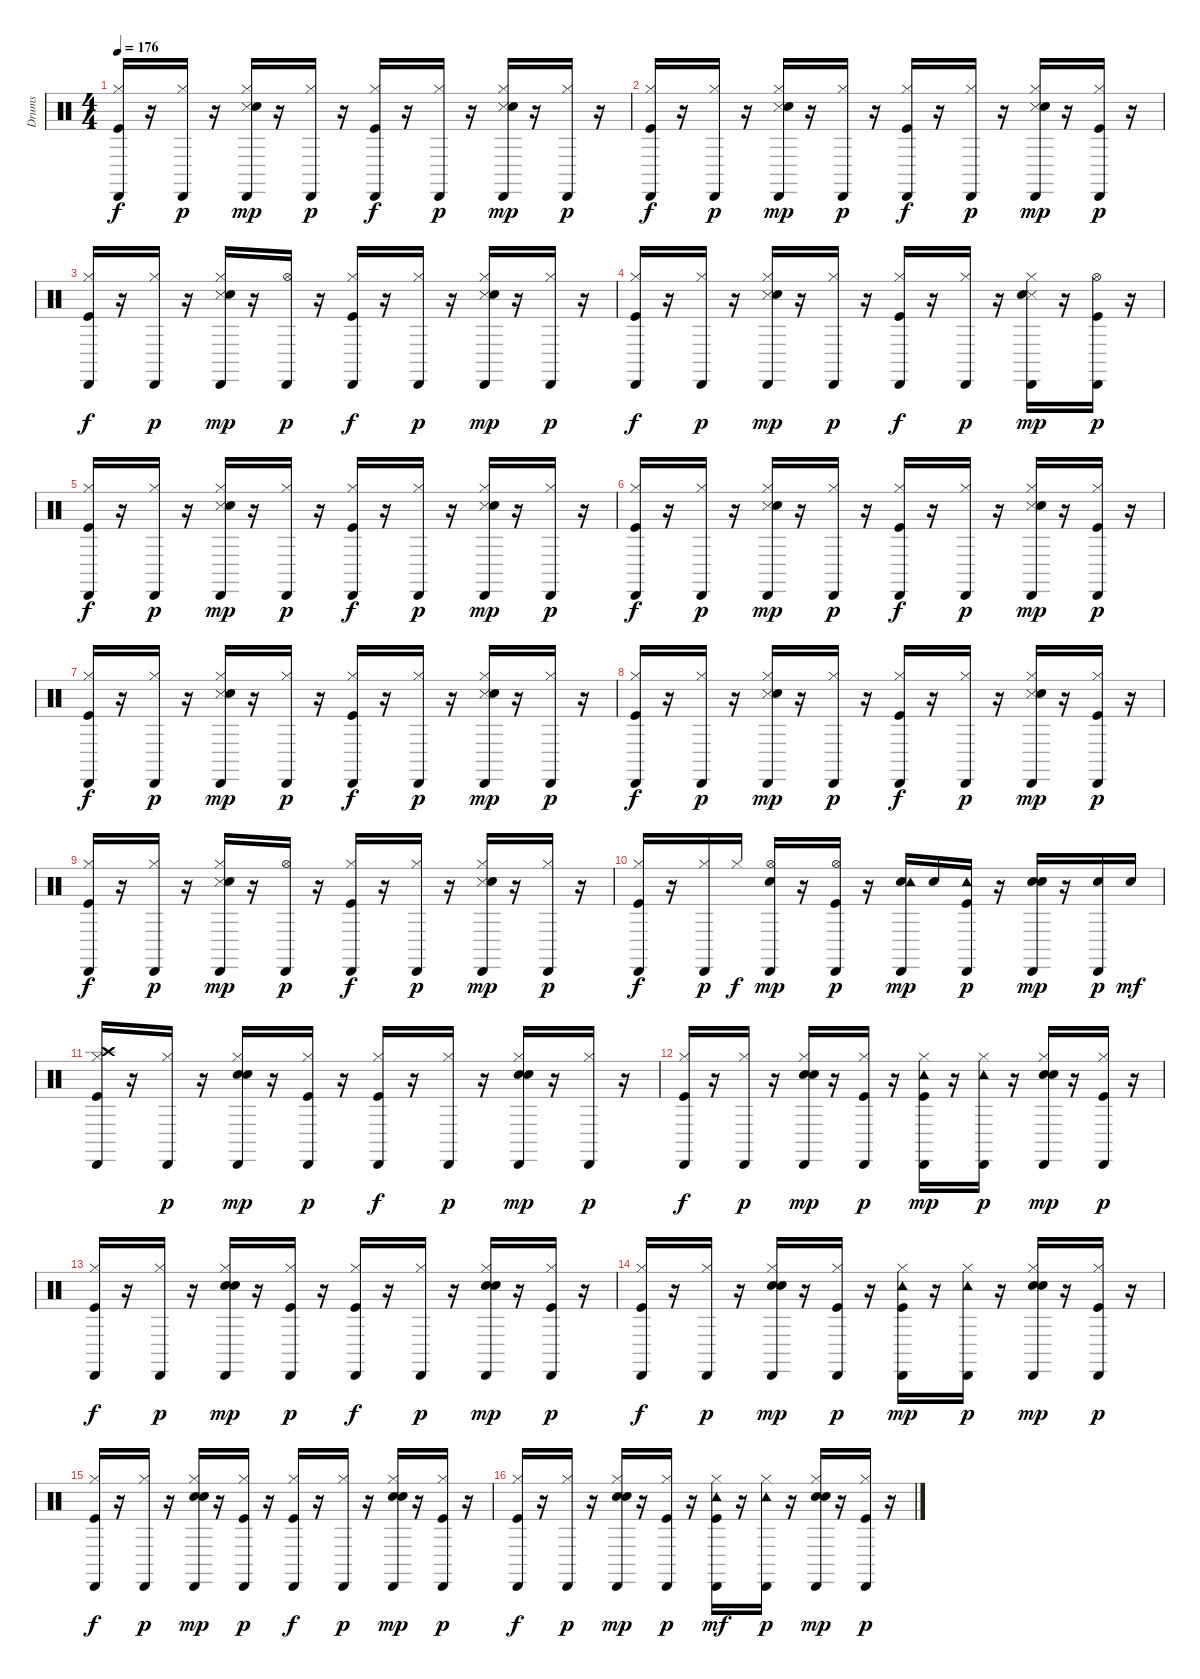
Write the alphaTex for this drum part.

\track ("Drums" "Drums") {instrument percussion}
\staff {score}
\articulation defaults
\ts (4 4)
\tempo 176
\clef neutral
\ks c
("Kick (hit)" "Hi-Hat (closed)" "Cabasa (hit)").16{dy f} r.16 ("Hi-Hat (closed)" "Cabasa (hit)").16{dy p} r.16 ("Hi-Hat (closed)" "Snare (side stick) 3" "Hand Clap (hit)" "Cabasa (hit)").16{dy mp} r.16 ("Hi-Hat (closed)" "Cabasa (hit)").16{dy p} r.16 ("Kick (hit)" "Hi-Hat (closed)" "Cabasa (hit)").16{dy f} r.16 ("Hi-Hat (closed)" "Cabasa (hit)").16{dy p} r.16 ("Hi-Hat (closed)" "Snare (side stick) 3" "Hand Clap (hit)" "Cabasa (hit)").16{dy mp} r.16 ("Hi-Hat (closed)" "Cabasa (hit)").16{dy p} r.16 |
("Kick (hit)" "Hi-Hat (closed)" "Cabasa (hit)").16{dy f} r.16 ("Hi-Hat (closed)" "Cabasa (hit)").16{dy p} r.16 ("Hi-Hat (closed)" "Snare (side stick) 3" "Hand Clap (hit)" "Cabasa (hit)").16{dy mp} r.16 ("Hi-Hat (closed)" "Cabasa (hit)").16{dy p} r.16 ("Kick (hit)" "Hi-Hat (closed)" "Cabasa (hit)").16{dy f} r.16 ("Hi-Hat (closed)" "Cabasa (hit)").16{dy p} r.16 ("Hi-Hat (closed)" "Snare (side stick) 3" "Hand Clap (hit)" "Cabasa (hit)").16{dy mp} r.16 ("Kick (hit)" "Hi-Hat (closed)" "Cabasa (hit)").16{dy p} r.16 |
("Kick (hit)" "Hi-Hat (closed)" "Cabasa (hit)").16{dy f} r.16 ("Hi-Hat (closed)" "Cabasa (hit)").16{dy p} r.16 ("Hi-Hat (closed)" "Snare (side stick) 3" "Hand Clap (hit)" "Cabasa (hit)").16{dy mp} r.16 ("Hi-Hat (open)" "Cabasa (hit)").16{dy p} r.16 ("Kick (hit)" "Hi-Hat (closed)" "Cabasa (hit)").16{dy f} r.16 ("Hi-Hat (closed)" "Cabasa (hit)").16{dy p} r.16 ("Hi-Hat (closed)" "Snare (side stick) 3" "Hand Clap (hit)" "Cabasa (hit)").16{dy mp} r.16 ("Hi-Hat (closed)" "Cabasa (hit)").16{dy p} r.16 |
("Kick (hit)" "Hi-Hat (closed)" "Cabasa (hit)").16{dy f} r.16 ("Hi-Hat (closed)" "Cabasa (hit)").16{dy p} r.16 ("Hi-Hat (closed)" "Snare (side stick) 3" "Hand Clap (hit)" "Cabasa (hit)").16{dy mp} r.16 ("Hi-Hat (closed)" "Cabasa (hit)").16{dy p} r.16 ("Kick (hit)" "Hi-Hat (closed)" "Cabasa (hit)").16{dy f} r.16 ("Hi-Hat (closed)" "Cabasa (hit)").16{dy p} r.16 ("Hi-Hat (closed)" "Snare (side stick) 3" "Hand Clap (hit)" "Cabasa (hit)").16{dy mp} r.16 ("Kick (hit)" "Hi-Hat (open)" "Cabasa (hit)").16{dy p} r.16 |
("Kick (hit)" "Hi-Hat (closed)" "Cabasa (hit)").16{dy f} r.16 ("Hi-Hat (closed)" "Cabasa (hit)").16{dy p} r.16 ("Hi-Hat (closed)" "Snare (side stick) 3" "Hand Clap (hit)" "Cabasa (hit)").16{dy mp} r.16 ("Hi-Hat (closed)" "Cabasa (hit)").16{dy p} r.16 ("Kick (hit)" "Hi-Hat (closed)" "Cabasa (hit)").16{dy f} r.16 ("Hi-Hat (closed)" "Cabasa (hit)").16{dy p} r.16 ("Hi-Hat (closed)" "Snare (side stick) 3" "Hand Clap (hit)" "Cabasa (hit)").16{dy mp} r.16 ("Hi-Hat (closed)" "Cabasa (hit)").16{dy p} r.16 |
("Kick (hit)" "Hi-Hat (closed)" "Cabasa (hit)").16{dy f} r.16 ("Hi-Hat (closed)" "Cabasa (hit)").16{dy p} r.16 ("Hi-Hat (closed)" "Snare (side stick) 3" "Hand Clap (hit)" "Cabasa (hit)").16{dy mp} r.16 ("Hi-Hat (closed)" "Cabasa (hit)").16{dy p} r.16 ("Kick (hit)" "Hi-Hat (closed)" "Cabasa (hit)").16{dy f} r.16 ("Hi-Hat (closed)" "Cabasa (hit)").16{dy p} r.16 ("Hi-Hat (closed)" "Snare (side stick) 3" "Hand Clap (hit)" "Cabasa (hit)").16{dy mp} r.16 ("Kick (hit)" "Hi-Hat (closed)" "Cabasa (hit)").16{dy p} r.16 |
("Kick (hit)" "Hi-Hat (closed)" "Cabasa (hit)").16{dy f} r.16 ("Hi-Hat (closed)" "Cabasa (hit)").16{dy p} r.16 ("Hi-Hat (closed)" "Snare (side stick) 3" "Hand Clap (hit)" "Cabasa (hit)").16{dy mp} r.16 ("Hi-Hat (closed)" "Cabasa (hit)").16{dy p} r.16 ("Kick (hit)" "Hi-Hat (closed)" "Cabasa (hit)").16{dy f} r.16 ("Hi-Hat (closed)" "Cabasa (hit)").16{dy p} r.16 ("Hi-Hat (closed)" "Snare (side stick) 3" "Hand Clap (hit)" "Cabasa (hit)").16{dy mp} r.16 ("Hi-Hat (closed)" "Cabasa (hit)").16{dy p} r.16 |
("Kick (hit)" "Hi-Hat (closed)" "Cabasa (hit)").16{dy f} r.16 ("Hi-Hat (closed)" "Cabasa (hit)").16{dy p} r.16 ("Hi-Hat (closed)" "Snare (side stick) 3" "Hand Clap (hit)" "Cabasa (hit)").16{dy mp} r.16 ("Hi-Hat (closed)" "Cabasa (hit)").16{dy p} r.16 ("Kick (hit)" "Hi-Hat (closed)" "Cabasa (hit)").16{dy f} r.16 ("Hi-Hat (closed)" "Cabasa (hit)").16{dy p} r.16 ("Hi-Hat (closed)" "Snare (side stick) 3" "Hand Clap (hit)" "Cabasa (hit)").16{dy mp} r.16 ("Kick (hit)" "Hi-Hat (closed)" "Cabasa (hit)").16{dy p} r.16 |
("Kick (hit)" "Hi-Hat (closed)" "Cabasa (hit)").16{dy f} r.16 ("Hi-Hat (closed)" "Cabasa (hit)").16{dy p} r.16 ("Hi-Hat (closed)" "Snare (side stick) 3" "Hand Clap (hit)" "Cabasa (hit)").16{dy mp} r.16 ("Hi-Hat (open)" "Cabasa (hit)").16{dy p} r.16 ("Kick (hit)" "Hi-Hat (closed)" "Cabasa (hit)").16{dy f} r.16 ("Hi-Hat (closed)" "Cabasa (hit)").16{dy p} r.16 ("Hi-Hat (closed)" "Snare (side stick) 3" "Hand Clap (hit)" "Cabasa (hit)").16{dy mp} r.16 ("Hi-Hat (closed)" "Cabasa (hit)").16{dy p} r.16 |
("Kick (hit)" "Hi-Hat (closed)" "Cabasa (hit)").16{dy f} r.16 ("Hi-Hat (closed)" "Cabasa (hit)").16{dy p} "Hi-Hat (closed)".16{dy f} ("Hi-Hat (open)" "Hand Clap (hit)" "Cabasa (hit)").16{dy mp} r.16 ("Kick (hit)" "Hi-Hat (open)" "Cabasa (hit)").16{dy p} r.16 ("Snare (hit) 2" "Tambourine (hit)" "Cabasa (hit)").16{dy mp} "Snare (hit) 2".16 ("Kick (hit)" "Tambourine (hit)" "Cabasa (hit)").16{dy p} r.16 ("Snare (hit) 2" "Hand Clap (hit)" "Cabasa (hit)").16{dy mp} r.16 ("Snare (hit) 2" "Cabasa (hit)").16{dy p} "Snare (hit) 2".16{dy mf} |
("Kick (hit)" "Hi-Hat (closed)" "Crash high (hit)" "Cabasa (hit)").16 r.16 ("Hi-Hat (closed)" "Cabasa (hit)").16{dy p} r.16 ("Snare (hit) 2" "Hi-Hat (closed)" "Hand Clap (hit)" "Cabasa (hit)").16{dy mp} r.16 ("Kick (hit)" "Hi-Hat (closed)" "Cabasa (hit)").16{dy p} r.16 ("Kick (hit)" "Hi-Hat (closed)" "Cabasa (hit)").16{dy f} r.16 ("Hi-Hat (closed)" "Cabasa (hit)").16{dy p} r.16 ("Snare (hit) 2" "Hi-Hat (closed)" "Hand Clap (hit)" "Cabasa (hit)").16{dy mp} r.16 ("Hi-Hat (closed)" "Cabasa (hit)").16{dy p} r.16 |
("Kick (hit)" "Hi-Hat (closed)" "Cabasa (hit)").16{dy f} r.16 ("Hi-Hat (closed)" "Cabasa (hit)").16{dy p} r.16 ("Snare (hit) 2" "Hi-Hat (closed)" "Hand Clap (hit)" "Cabasa (hit)").16{dy mp} r.16 ("Kick (hit)" "Hi-Hat (closed)" "Cabasa (hit)").16{dy p} r.16 ("Kick (hit)" "Hi-Hat (closed)" "Tambourine (hit)" "Cabasa (hit)").16{dy mp} r.16 ("Hi-Hat (closed)" "Tambourine (hit)" "Cabasa (hit)").16{dy p} r.16 ("Snare (hit) 2" "Hi-Hat (closed)" "Hand Clap (hit)" "Cabasa (hit)").16{dy mp} r.16 ("Kick (hit)" "Hi-Hat (closed)" "Cabasa (hit)").16{dy p} r.16 |
("Kick (hit)" "Hi-Hat (closed)" "Cabasa (hit)").16{dy f} r.16 ("Hi-Hat (closed)" "Cabasa (hit)").16{dy p} r.16 ("Snare (hit) 2" "Hi-Hat (closed)" "Hand Clap (hit)" "Cabasa (hit)").16{dy mp} r.16 ("Kick (hit)" "Hi-Hat (closed)" "Cabasa (hit)").16{dy p} r.16 ("Kick (hit)" "Hi-Hat (closed)" "Cabasa (hit)").16{dy f} r.16 ("Hi-Hat (closed)" "Cabasa (hit)").16{dy p} r.16 ("Snare (hit) 2" "Hi-Hat (closed)" "Hand Clap (hit)" "Cabasa (hit)").16{dy mp} r.16 ("Kick (hit)" "Hi-Hat (closed)" "Cabasa (hit)").16{dy p} r.16 |
("Kick (hit)" "Hi-Hat (closed)" "Cabasa (hit)").16{dy f} r.16 ("Hi-Hat (closed)" "Cabasa (hit)").16{dy p} r.16 ("Snare (hit) 2" "Hi-Hat (closed)" "Hand Clap (hit)" "Cabasa (hit)").16{dy mp} r.16 ("Kick (hit)" "Hi-Hat (closed)" "Cabasa (hit)").16{dy p} r.16 ("Kick (hit)" "Hi-Hat (closed)" "Tambourine (hit)" "Cabasa (hit)").16{dy mp} r.16 ("Hi-Hat (closed)" "Tambourine (hit)" "Cabasa (hit)").16{dy p} r.16 ("Snare (hit) 2" "Hi-Hat (closed)" "Hand Clap (hit)" "Cabasa (hit)").16{dy mp} r.16 ("Kick (hit)" "Hi-Hat (closed)" "Cabasa (hit)").16{dy p} r.16 |
("Kick (hit)" "Hi-Hat (closed)" "Cabasa (hit)").16{dy f} r.16 ("Hi-Hat (closed)" "Cabasa (hit)").16{dy p} r.16 ("Snare (hit) 2" "Hi-Hat (closed)" "Hand Clap (hit)" "Cabasa (hit)").16{dy mp} r.16 ("Kick (hit)" "Hi-Hat (closed)" "Cabasa (hit)").16{dy p} r.16 ("Kick (hit)" "Hi-Hat (closed)" "Cabasa (hit)").16{dy f} r.16 ("Hi-Hat (closed)" "Cabasa (hit)").16{dy p} r.16 ("Snare (hit) 2" "Hi-Hat (closed)" "Hand Clap (hit)" "Cabasa (hit)").16{dy mp} r.16 ("Kick (hit)" "Hi-Hat (closed)" "Cabasa (hit)").16{dy p} r.16 |
("Kick (hit)" "Hi-Hat (closed)" "Cabasa (hit)").16{dy f} r.16 ("Hi-Hat (closed)" "Cabasa (hit)").16{dy p} r.16 ("Snare (hit) 2" "Hi-Hat (closed)" "Hand Clap (hit)" "Cabasa (hit)").16{dy mp} r.16 ("Kick (hit)" "Hi-Hat (closed)" "Cabasa (hit)").16{dy p} r.16 ("Kick (hit)" "Hi-Hat (closed)" "Tambourine (hit)" "Cabasa (hit)").16{dy mf} r.16 ("Hi-Hat (closed)" "Tambourine (hit)" "Cabasa (hit)").16{dy p} r.16 ("Snare (hit) 2" "Hi-Hat (closed)" "Hand Clap (hit)" "Cabasa (hit)").16{dy mp} r.16 ("Kick (hit)" "Hi-Hat (closed)" "Cabasa (hit)").16{dy p} r.16
